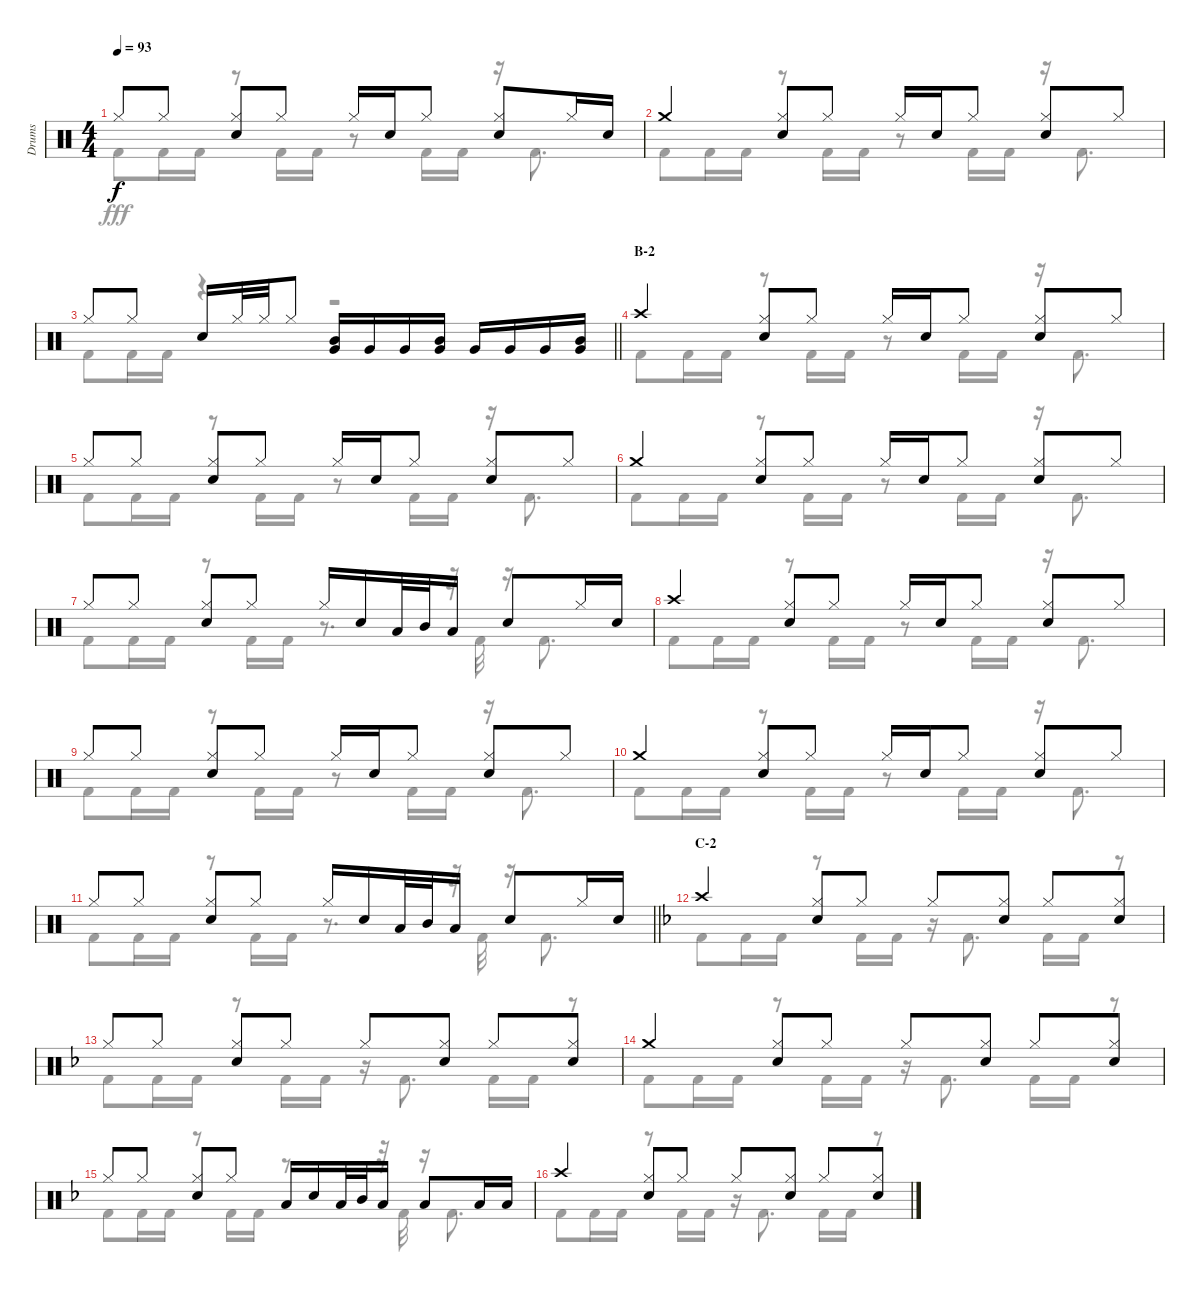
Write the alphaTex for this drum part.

\track ("Drums" "Drums") {instrument percussion}
\staff {score}
\articulation defaults
\voice
\ts (4 4)
\tempo 93
\clef neutral
\ks c "Hi-Hat (closed)".8{dy f} "Hi-Hat (closed)".8
("Hi-Hat (closed)" "Snare (hit) 2").8 "Hi-Hat (closed)".8 "Hi-Hat (closed)".16 "Snare (hit) 2".16 "Hi-Hat (closed)".8 ("Hi-Hat (closed)" "Snare (hit) 2").8 "Hi-Hat (closed)".16 "Snare (hit) 2".16 |
"Crash medium (hit)".4 ("Hi-Hat (closed)" "Snare (hit) 2").8 "Hi-Hat (closed)".8 "Hi-Hat (closed)".16 "Snare (hit) 2".16 "Hi-Hat (closed)".8 ("Hi-Hat (closed)" "Snare (hit) 2").8 "Hi-Hat (closed)".8 |
\barLineRight lightlight "Hi-Hat (closed)".8 "Hi-Hat (closed)".8 "Snare (hit) 2".16 "Hi-Hat (closed)".32 "Hi-Hat (closed)".32 "Hi-Hat (closed)".8
("Mid Tom (hit)" "Very Low Tom (hit)").16 "Very Low Tom (hit)".16 "Very Low Tom (hit)".16 ("Mid Tom (hit)" "Very Low Tom (hit)").16 "Very Low Tom (hit)".16 "Very Low Tom (hit)".16 "Very Low Tom (hit)".16 ("Mid Tom (hit)" "Very Low Tom (hit)").16 |
\section ("" "B-2")
"Crash high (hit)".4 ("Hi-Hat (closed)" "Snare (hit) 2").8 "Hi-Hat (closed)".8 "Hi-Hat (closed)".16 "Snare (hit) 2".16 "Hi-Hat (closed)".8 ("Hi-Hat (closed)" "Snare (hit) 2").8 "Hi-Hat (closed)".8 |
"Hi-Hat (closed)".8 "Hi-Hat (closed)".8 ("Hi-Hat (closed)" "Snare (hit) 2").8 "Hi-Hat (closed)".8 "Hi-Hat (closed)".16 "Snare (hit) 2".16 "Hi-Hat (closed)".8 ("Hi-Hat (closed)" "Snare (hit) 2").8 "Hi-Hat (closed)".8 |
"Crash medium (hit)".4 ("Hi-Hat (closed)" "Snare (hit) 2").8 "Hi-Hat (closed)".8 "Hi-Hat (closed)".16 "Snare (hit) 2".16 "Hi-Hat (closed)".8 ("Hi-Hat (closed)" "Snare (hit) 2").8 "Hi-Hat (closed)".8 |
"Hi-Hat (closed)".8 "Hi-Hat (closed)".8 ("Hi-Hat (closed)" "Snare (hit) 2").8 "Hi-Hat (closed)".8 "Hi-Hat (closed)".16 "Snare (hit) 2".16 "Low Tom (hit)".32 "Mid Tom (hit)".32 "Low Tom (hit)".16 "Snare (hit) 2".8 "Hi-Hat (closed)".16 "Snare (hit) 2".16 |
"Crash high (hit)".4 ("Hi-Hat (closed)" "Snare (hit) 2").8 "Hi-Hat (closed)".8 "Hi-Hat (closed)".16 "Snare (hit) 2".16 "Hi-Hat (closed)".8 ("Hi-Hat (closed)" "Snare (hit) 2").8 "Hi-Hat (closed)".8 |
"Hi-Hat (closed)".8 "Hi-Hat (closed)".8 ("Hi-Hat (closed)" "Snare (hit) 2").8 "Hi-Hat (closed)".8 "Hi-Hat (closed)".16 "Snare (hit) 2".16 "Hi-Hat (closed)".8 ("Hi-Hat (closed)" "Snare (hit) 2").8 "Hi-Hat (closed)".8 |
"Crash medium (hit)".4 ("Hi-Hat (closed)" "Snare (hit) 2").8 "Hi-Hat (closed)".8 "Hi-Hat (closed)".16 "Snare (hit) 2".16 "Hi-Hat (closed)".8 ("Hi-Hat (closed)" "Snare (hit) 2").8 "Hi-Hat (closed)".8 |
\barLineRight lightlight "Hi-Hat (closed)".8 "Hi-Hat (closed)".8
("Hi-Hat (closed)" "Snare (hit) 2").8 "Hi-Hat (closed)".8 "Hi-Hat (closed)".16 "Snare (hit) 2".16 "Low Tom (hit)".32 "Mid Tom (hit)".32 "Low Tom (hit)".16 "Snare (hit) 2".8 "Hi-Hat (closed)".16 "Snare (hit) 2".16 |
\section ("" "C-2")
\ks f "Crash high (hit)".4
("Hi-Hat (closed)" "Snare (hit) 2").8 "Hi-Hat (closed)".8 "Hi-Hat (closed)".8 ("Hi-Hat (closed)" "Snare (hit) 2").8 "Hi-Hat (closed)".8 ("Hi-Hat (closed)" "Snare (hit) 2").8 |
"Hi-Hat (closed)".8 "Hi-Hat (closed)".8 ("Hi-Hat (closed)" "Snare (hit) 2").8 "Hi-Hat (closed)".8 "Hi-Hat (closed)".8 ("Hi-Hat (closed)" "Snare (hit) 2").8 "Hi-Hat (closed)".8 ("Hi-Hat (closed)" "Snare (hit) 2").8 |
"Crash medium (hit)".4 ("Hi-Hat (closed)" "Snare (hit) 2").8 "Hi-Hat (closed)".8 "Hi-Hat (closed)".8 ("Hi-Hat (closed)" "Snare (hit) 2").8 "Hi-Hat (closed)".8 ("Hi-Hat (closed)" "Snare (hit) 2").8 |
"Hi-Hat (closed)".8 "Hi-Hat (closed)".8 ("Hi-Hat (closed)" "Snare (hit) 2").8 "Hi-Hat (closed)".8 "Low Tom (hit)".16 "Snare (hit) 2".16 "Low Tom (hit)".32 "Mid Tom (hit)".32 "Low Tom (hit)".16 "Low Tom (hit)".8 "Low Tom (hit)".16 "Low Tom (hit)".16 |
"Crash high (hit)".4 ("Hi-Hat (closed)" "Snare (hit) 2").8 "Hi-Hat (closed)".8 "Hi-Hat (closed)".8 ("Hi-Hat (closed)" "Snare (hit) 2").8 "Hi-Hat (closed)".8 ("Hi-Hat (closed)" "Snare (hit) 2").8
\voice
\clef neutral
\ottava regular
\simile none
\ks c "Kick (hit) 2".8{dy fff} "Kick (hit) 2".16 "Kick (hit) 2".16
r.8 "Kick (hit) 2".16 "Kick (hit) 2".16 r.8 "Kick (hit) 2".16 "Kick (hit) 2".16 r.16 "Kick (hit) 2".8{d} |
"Kick (hit) 2".8 "Kick (hit) 2".16 "Kick (hit) 2".16 r.8 "Kick (hit) 2".16 "Kick (hit) 2".16 r.8 "Kick (hit) 2".16 "Kick (hit) 2".16 r.16 "Kick (hit) 2".8{d} |
\barLineRight lightlight "Kick (hit) 2".8 "Kick (hit) 2".16 "Kick (hit) 2".16
r.4 r.2 |
"Kick (hit) 2".8 "Kick (hit) 2".16 "Kick (hit) 2".16 r.8 "Kick (hit) 2".16 "Kick (hit) 2".16 r.8 "Kick (hit) 2".16 "Kick (hit) 2".16 r.16 "Kick (hit) 2".8{d} |
"Kick (hit) 2".8 "Kick (hit) 2".16 "Kick (hit) 2".16 r.8 "Kick (hit) 2".16 "Kick (hit) 2".16 r.8 "Kick (hit) 2".16 "Kick (hit) 2".16 r.16 "Kick (hit) 2".8{d} |
"Kick (hit) 2".8 "Kick (hit) 2".16 "Kick (hit) 2".16 r.8 "Kick (hit) 2".16 "Kick (hit) 2".16 r.8 "Kick (hit) 2".16 "Kick (hit) 2".16 r.16 "Kick (hit) 2".8{d} |
"Kick (hit) 2".8 "Kick (hit) 2".16 "Kick (hit) 2".16 r.8 "Kick (hit) 2".16 "Kick (hit) 2".16 r.8{d} r.32 "Kick (hit) 2".32 r.16 "Kick (hit) 2".8{d} |
"Kick (hit) 2".8 "Kick (hit) 2".16 "Kick (hit) 2".16 r.8 "Kick (hit) 2".16 "Kick (hit) 2".16 r.8 "Kick (hit) 2".16 "Kick (hit) 2".16 r.16 "Kick (hit) 2".8{d} |
"Kick (hit) 2".8 "Kick (hit) 2".16 "Kick (hit) 2".16 r.8 "Kick (hit) 2".16 "Kick (hit) 2".16 r.8 "Kick (hit) 2".16 "Kick (hit) 2".16 r.16 "Kick (hit) 2".8{d} |
"Kick (hit) 2".8 "Kick (hit) 2".16 "Kick (hit) 2".16 r.8 "Kick (hit) 2".16 "Kick (hit) 2".16 r.8 "Kick (hit) 2".16 "Kick (hit) 2".16 r.16 "Kick (hit) 2".8{d} |
\barLineRight lightlight "Kick (hit) 2".8 "Kick (hit) 2".16 "Kick (hit) 2".16
r.8 "Kick (hit) 2".16 "Kick (hit) 2".16 r.8{d} r.32 "Kick (hit) 2".32 r.16 "Kick (hit) 2".8{d} |
\ks f "Kick (hit) 2".8 "Kick (hit) 2".16 "Kick (hit) 2".16
r.8 "Kick (hit) 2".16 "Kick (hit) 2".16 r.16 "Kick (hit) 2".8{d} "Kick (hit) 2".16 "Kick (hit) 2".16 r.8 |
"Kick (hit) 2".8 "Kick (hit) 2".16 "Kick (hit) 2".16 r.8 "Kick (hit) 2".16 "Kick (hit) 2".16 r.16 "Kick (hit) 2".8{d} "Kick (hit) 2".16 "Kick (hit) 2".16 r.8 |
"Kick (hit) 2".8 "Kick (hit) 2".16 "Kick (hit) 2".16 r.8 "Kick (hit) 2".16 "Kick (hit) 2".16 r.16 "Kick (hit) 2".8{d} "Kick (hit) 2".16 "Kick (hit) 2".16 r.8 |
"Kick (hit) 2".8 "Kick (hit) 2".16 "Kick (hit) 2".16 r.8 "Kick (hit) 2".16 "Kick (hit) 2".16 r.8{d} r.32 "Kick (hit) 2".32 r.16 "Kick (hit) 2".8{d} |
"Kick (hit) 2".8 "Kick (hit) 2".16 "Kick (hit) 2".16 r.8 "Kick (hit) 2".16 "Kick (hit) 2".16 r.16 "Kick (hit) 2".8{d} "Kick (hit) 2".16 "Kick (hit) 2".16 r.8
